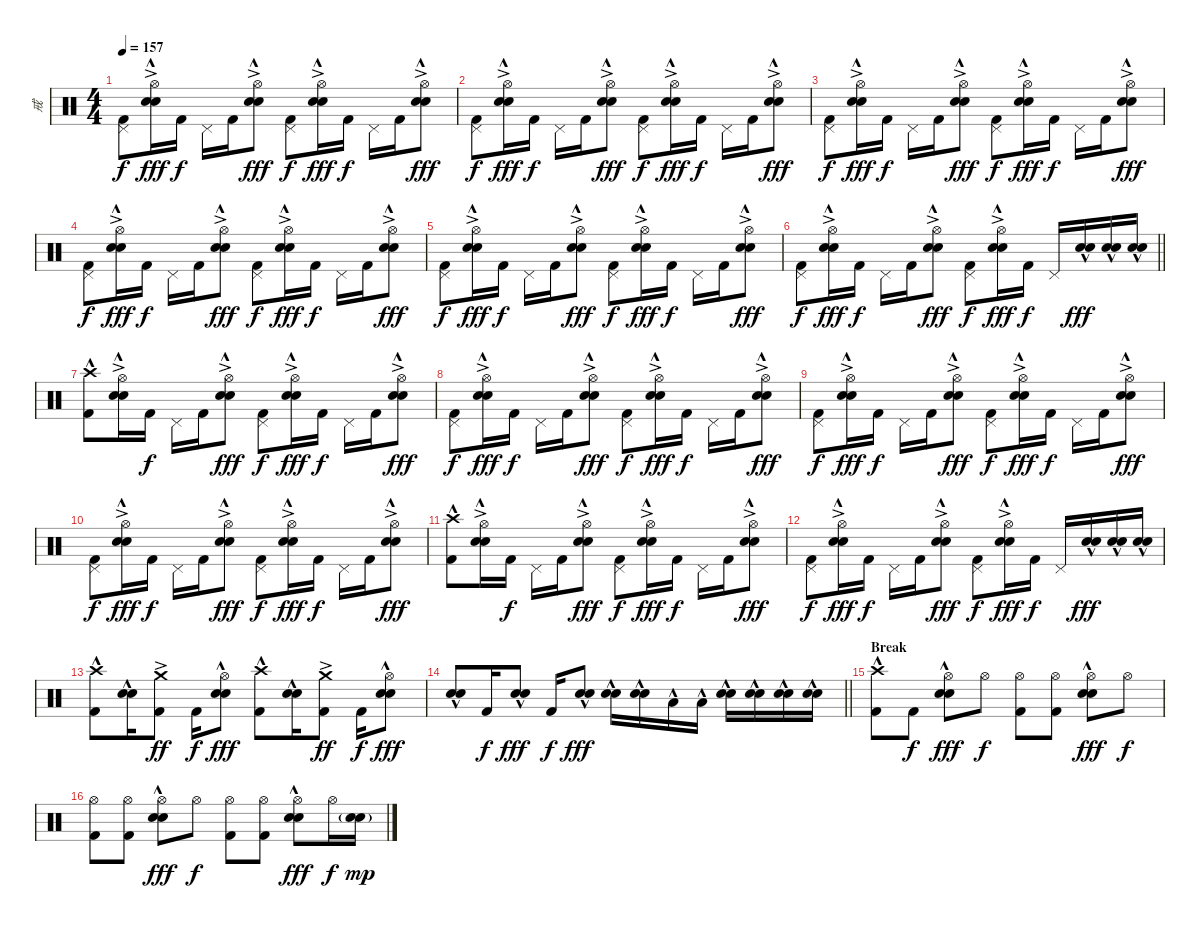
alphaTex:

\track ("戒" "戒") {instrument percussion}
\staff {score}
\articulation defaults
\ts (4 4)
\tempo 157
\clef neutral
\ks c
("Pedal Hi-Hat (hit)" "Kick (hit) 2").8{dy f} ("Hi-Hat (open)"{ac} "Electric Snare (hit)"{hac} "Snare (hit) 2").16{dy fff} "Kick (hit) 2".16{dy f} "Pedal Hi-Hat (hit)".16 "Kick (hit) 2".16 ("Hi-Hat (open)"{ac} "Electric Snare (hit)"{hac} "Snare (hit) 2").8{dy fff} ("Pedal Hi-Hat (hit)" "Kick (hit) 2").8{dy f} ("Hi-Hat (open)"{ac} "Electric Snare (hit)"{hac} "Snare (hit) 2").16{dy fff} "Kick (hit) 2".16{dy f} "Pedal Hi-Hat (hit)".16 "Kick (hit) 2".16 ("Hi-Hat (open)"{ac} "Electric Snare (hit)"{hac} "Snare (hit) 2").8{dy fff} |
("Pedal Hi-Hat (hit)" "Kick (hit) 2").8{dy f} ("Hi-Hat (open)"{ac} "Electric Snare (hit)"{hac} "Snare (hit) 2").16{dy fff} "Kick (hit) 2".16{dy f} "Pedal Hi-Hat (hit)".16 "Kick (hit) 2".16 ("Hi-Hat (open)"{ac} "Electric Snare (hit)"{hac} "Snare (hit) 2").8{dy fff} ("Pedal Hi-Hat (hit)" "Kick (hit) 2").8{dy f} ("Hi-Hat (open)"{ac} "Electric Snare (hit)"{hac} "Snare (hit) 2").16{dy fff} "Kick (hit) 2".16{dy f} "Pedal Hi-Hat (hit)".16 "Kick (hit) 2".16 ("Hi-Hat (open)"{ac} "Electric Snare (hit)"{hac} "Snare (hit) 2").8{dy fff} |
("Pedal Hi-Hat (hit)" "Kick (hit) 2").8{dy f} ("Hi-Hat (open)"{ac} "Electric Snare (hit)"{hac} "Snare (hit) 2").16{dy fff} "Kick (hit) 2".16{dy f} "Pedal Hi-Hat (hit)".16 "Kick (hit) 2".16 ("Hi-Hat (open)"{ac} "Electric Snare (hit)"{hac} "Snare (hit) 2").8{dy fff} ("Pedal Hi-Hat (hit)" "Kick (hit) 2").8{dy f} ("Hi-Hat (open)"{ac} "Electric Snare (hit)"{hac} "Snare (hit) 2").16{dy fff} "Kick (hit) 2".16{dy f} "Pedal Hi-Hat (hit)".16 "Kick (hit) 2".16 ("Hi-Hat (open)"{ac} "Electric Snare (hit)"{hac} "Snare (hit) 2").8{dy fff} |
("Pedal Hi-Hat (hit)" "Kick (hit) 2").8{dy f} ("Hi-Hat (open)"{ac} "Electric Snare (hit)"{hac} "Snare (hit) 2").16{dy fff} "Kick (hit) 2".16{dy f} "Pedal Hi-Hat (hit)".16 "Kick (hit) 2".16 ("Hi-Hat (open)"{ac} "Electric Snare (hit)"{hac} "Snare (hit) 2").8{dy fff} ("Pedal Hi-Hat (hit)" "Kick (hit) 2").8{dy f} ("Hi-Hat (open)"{ac} "Electric Snare (hit)"{hac} "Snare (hit) 2").16{dy fff} "Kick (hit) 2".16{dy f} "Pedal Hi-Hat (hit)".16 "Kick (hit) 2".16 ("Hi-Hat (open)"{ac} "Electric Snare (hit)"{hac} "Snare (hit) 2").8{dy fff} |
("Pedal Hi-Hat (hit)" "Kick (hit) 2").8{dy f} ("Hi-Hat (open)"{ac} "Electric Snare (hit)"{hac} "Snare (hit) 2").16{dy fff} "Kick (hit) 2".16{dy f} "Pedal Hi-Hat (hit)".16 "Kick (hit) 2".16 ("Hi-Hat (open)"{ac} "Electric Snare (hit)"{hac} "Snare (hit) 2").8{dy fff} ("Pedal Hi-Hat (hit)" "Kick (hit) 2").8{dy f} ("Hi-Hat (open)"{ac} "Electric Snare (hit)"{hac} "Snare (hit) 2").16{dy fff} "Kick (hit) 2".16{dy f} "Pedal Hi-Hat (hit)".16 "Kick (hit) 2".16 ("Hi-Hat (open)"{ac} "Electric Snare (hit)"{hac} "Snare (hit) 2").8{dy fff} |
\barLineRight lightlight
("Pedal Hi-Hat (hit)" "Kick (hit) 2").8{dy f} ("Hi-Hat (open)"{ac} "Electric Snare (hit)"{hac} "Snare (hit) 2").16{dy fff} "Kick (hit) 2".16{dy f} "Pedal Hi-Hat (hit)".16 "Kick (hit) 2".16 ("Hi-Hat (open)"{ac} "Electric Snare (hit)"{hac} "Snare (hit) 2").8{dy fff} ("Pedal Hi-Hat (hit)" "Kick (hit) 2").8{dy f} ("Hi-Hat (open)"{ac} "Electric Snare (hit)"{hac} "Snare (hit) 2").16{dy fff} "Kick (hit) 2".16{dy f} "Pedal Hi-Hat (hit)".16 ("Electric Snare (hit)"{hac} "Snare (hit) 2").16{dy fff} ("Electric Snare (hit)"{hac} "Snare (hit) 2").16 ("Electric Snare (hit)"{hac} "Snare (hit) 2").16 |
\section ("" "")
("Crash high (hit)"{hac} "Kick (hit) 2").8 ("Hi-Hat (open)"{ac} "Electric Snare (hit)"{hac} "Snare (hit) 2").16 "Kick (hit) 2".16{dy f} "Pedal Hi-Hat (hit)".16 "Kick (hit) 2".16 ("Hi-Hat (open)"{ac} "Electric Snare (hit)"{hac} "Snare (hit) 2").8{dy fff} ("Pedal Hi-Hat (hit)" "Kick (hit) 2").8{dy f} ("Hi-Hat (open)"{ac} "Electric Snare (hit)"{hac} "Snare (hit) 2").16{dy fff} "Kick (hit) 2".16{dy f} "Pedal Hi-Hat (hit)".16 "Kick (hit) 2".16 ("Hi-Hat (open)"{ac} "Electric Snare (hit)"{hac} "Snare (hit) 2").8{dy fff} |
("Pedal Hi-Hat (hit)" "Kick (hit) 2").8{dy f} ("Hi-Hat (open)"{ac} "Electric Snare (hit)"{hac} "Snare (hit) 2").16{dy fff} "Kick (hit) 2".16{dy f} "Pedal Hi-Hat (hit)".16 "Kick (hit) 2".16 ("Hi-Hat (open)"{ac} "Electric Snare (hit)"{hac} "Snare (hit) 2").8{dy fff} ("Pedal Hi-Hat (hit)" "Kick (hit) 2").8{dy f} ("Hi-Hat (open)"{ac} "Electric Snare (hit)"{hac} "Snare (hit) 2").16{dy fff} "Kick (hit) 2".16{dy f} "Pedal Hi-Hat (hit)".16 "Kick (hit) 2".16 ("Hi-Hat (open)"{ac} "Electric Snare (hit)"{hac} "Snare (hit) 2").8{dy fff} |
("Pedal Hi-Hat (hit)" "Kick (hit) 2").8{dy f} ("Hi-Hat (open)"{ac} "Electric Snare (hit)"{hac} "Snare (hit) 2").16{dy fff} "Kick (hit) 2".16{dy f} "Pedal Hi-Hat (hit)".16 "Kick (hit) 2".16 ("Hi-Hat (open)"{ac} "Electric Snare (hit)"{hac} "Snare (hit) 2").8{dy fff} ("Pedal Hi-Hat (hit)" "Kick (hit) 2").8{dy f} ("Hi-Hat (open)"{ac} "Electric Snare (hit)"{hac} "Snare (hit) 2").16{dy fff} "Kick (hit) 2".16{dy f} "Pedal Hi-Hat (hit)".16 "Kick (hit) 2".16 ("Hi-Hat (open)"{ac} "Electric Snare (hit)"{hac} "Snare (hit) 2").8{dy fff} |
("Pedal Hi-Hat (hit)" "Kick (hit) 2").8{dy f} ("Hi-Hat (open)"{ac} "Electric Snare (hit)"{hac} "Snare (hit) 2").16{dy fff} "Kick (hit) 2".16{dy f} "Pedal Hi-Hat (hit)".16 "Kick (hit) 2".16 ("Hi-Hat (open)"{ac} "Electric Snare (hit)"{hac} "Snare (hit) 2").8{dy fff} ("Pedal Hi-Hat (hit)" "Kick (hit) 2").8{dy f} ("Hi-Hat (open)"{ac} "Electric Snare (hit)"{hac} "Snare (hit) 2").16{dy fff} "Kick (hit) 2".16{dy f} "Pedal Hi-Hat (hit)".16 "Kick (hit) 2".16 ("Hi-Hat (open)"{ac} "Electric Snare (hit)"{hac} "Snare (hit) 2").8{dy fff} |
("Crash high (hit)"{hac} "Kick (hit) 2").8 ("Hi-Hat (open)"{ac} "Electric Snare (hit)"{hac} "Snare (hit) 2").16 "Kick (hit) 2".16{dy f} "Pedal Hi-Hat (hit)".16 "Kick (hit) 2".16 ("Hi-Hat (open)"{ac} "Electric Snare (hit)"{hac} "Snare (hit) 2").8{dy fff} ("Pedal Hi-Hat (hit)" "Kick (hit) 2").8{dy f} ("Hi-Hat (open)"{ac} "Electric Snare (hit)"{hac} "Snare (hit) 2").16{dy fff} "Kick (hit) 2".16{dy f} "Pedal Hi-Hat (hit)".16 "Kick (hit) 2".16 ("Hi-Hat (open)"{ac} "Electric Snare (hit)"{hac} "Snare (hit) 2").8{dy fff} |
("Pedal Hi-Hat (hit)" "Kick (hit) 2").8{dy f} ("Hi-Hat (open)"{ac} "Electric Snare (hit)"{hac} "Snare (hit) 2").16{dy fff} "Kick (hit) 2".16{dy f} "Pedal Hi-Hat (hit)".16 "Kick (hit) 2".16 ("Hi-Hat (open)"{ac} "Electric Snare (hit)"{hac} "Snare (hit) 2").8{dy fff} ("Pedal Hi-Hat (hit)" "Kick (hit) 2").8{dy f} ("Hi-Hat (open)"{ac} "Electric Snare (hit)"{hac} "Snare (hit) 2").16{dy fff} "Kick (hit) 2".16{dy f} "Pedal Hi-Hat (hit)".16 ("Electric Snare (hit)"{hac} "Snare (hit) 2").16{dy fff} ("Electric Snare (hit)"{hac} "Snare (hit) 2").16 ("Electric Snare (hit)"{hac} "Snare (hit) 2").16 |
("Crash high (hit)"{hac} "Kick (hit) 2").8 ("Electric Snare (hit)"{hac} "Snare (hit) 2").16 ("Crash medium (hit)"{ac} "Kick (hit) 2").8{dy ff} "Kick (hit) 2".16{dy f} ("Hi-Hat (open)" "Electric Snare (hit)"{hac} "Snare (hit) 2").8{dy fff} ("Crash high (hit)"{hac} "Kick (hit) 2").8 ("Electric Snare (hit)"{hac} "Snare (hit) 2").16 ("Crash medium (hit)"{ac} "Kick (hit) 2").8{dy ff} "Kick (hit) 2".16{dy f} ("Hi-Hat (open)" "Electric Snare (hit)"{hac} "Snare (hit) 2").8{dy fff} |
\barLineRight lightlight
("Electric Snare (hit)"{hac} "Snare (hit) 2").8 "Kick (hit) 2".16{dy f} ("Electric Snare (hit)"{hac} "Snare (hit) 2").8{dy fff} "Kick (hit) 2".16{dy f} ("Electric Snare (hit)"{hac} "Snare (hit) 2").8{dy fff} ("Electric Snare (hit)"{hac} "Snare (hit) 2").16 ("Electric Snare (hit)"{hac} "Snare (hit) 2").16 "Low Tom (hit)"{hac}.16 "Low Tom (hit)"{hac}.16 ("Electric Snare (hit)"{hac} "Snare (hit) 2").16 ("Electric Snare (hit)"{hac} "Snare (hit) 2").16 ("Electric Snare (hit)"{hac} "Snare (hit) 2").16 ("Electric Snare (hit)"{hac} "Snare (hit) 2").16 |
\section ("" "Break")
("Crash high (hit)"{hac} "Kick (hit) 2").8 "Kick (hit) 2".8{dy f} ("Hi-Hat (open)" "Electric Snare (hit)"{hac} "Snare (hit) 2").8{dy fff} "Hi-Hat (open)".8{dy f} ("Hi-Hat (open)" "Kick (hit) 2").8 ("Hi-Hat (open)" "Kick (hit) 2").8 ("Hi-Hat (open)" "Electric Snare (hit)"{hac} "Snare (hit) 2").8{dy fff} "Hi-Hat (open)".8{dy f} |
("Hi-Hat (open)" "Kick (hit) 2").8 ("Hi-Hat (open)" "Kick (hit) 2").8 ("Hi-Hat (open)" "Electric Snare (hit)"{hac} "Snare (hit) 2").8{dy fff} "Hi-Hat (open)".8{dy f} ("Hi-Hat (open)" "Kick (hit) 2").8 ("Hi-Hat (open)" "Kick (hit) 2").8 ("Hi-Hat (open)" "Electric Snare (hit)"{hac} "Snare (hit) 2").8{dy fff} "Hi-Hat (open)".16{dy f} ("Electric Snare (hit)"{g} "Snare (hit) 2"{g}).16{dy mp}
